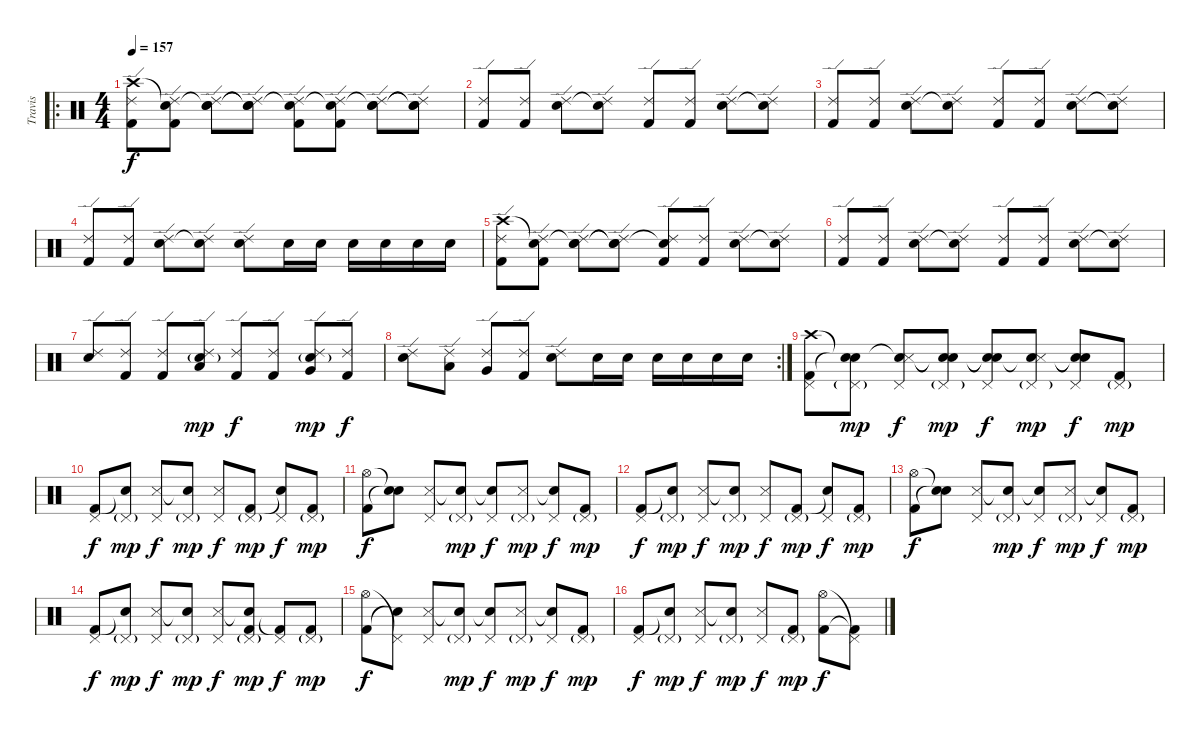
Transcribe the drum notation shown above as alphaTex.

\track ("Travis" "Travis") {instrument percussion}
\staff {score}
\articulation defaults
\ro
\ts (4 4)
\tempo 157
\clef neutral
\ks c
("Crash high (hit)" "Ride (edge) 2" "Kick (hit) 2").8{dy f} ("Snare (hit)"{t} "Ride (edge) 2" "Kick (hit) 2").8 ("Snare (hit)"{t} "Ride (edge) 2" "Electric Snare (hit)").8 ("Snare (hit)"{t} "Ride (edge) 2" "Snare (hit)"{t}).8 ("Snare (hit)"{t} "Ride (edge) 2" "Kick (hit) 2").8 ("Snare (hit)"{t} "Ride (edge) 2" "Kick (hit) 2").8 ("Snare (hit)"{t} "Ride (edge) 2" "Electric Snare (hit)").8 ("Snare (hit)"{t} "Ride (edge) 2" "Snare (hit)"{t}).8 |
("Ride (edge) 2" "Kick (hit) 2").8 ("Ride (edge) 2" "Kick (hit) 2").8 ("Ride (edge) 2" "Electric Snare (hit)").8 ("Ride (edge) 2" "Snare (hit)"{t}).8 ("Ride (edge) 2" "Kick (hit) 2").8 ("Ride (edge) 2" "Kick (hit) 2").8 ("Ride (edge) 2" "Electric Snare (hit)").8 ("Ride (edge) 2" "Snare (hit)"{t}).8 |
("Ride (edge) 2" "Kick (hit) 2").8 ("Ride (edge) 2" "Kick (hit) 2").8 ("Ride (edge) 2" "Electric Snare (hit)").8 ("Ride (edge) 2" "Snare (hit)"{t}).8 ("Ride (edge) 2" "Kick (hit) 2").8 ("Ride (edge) 2" "Kick (hit) 2").8 ("Ride (edge) 2" "Electric Snare (hit)").8 ("Ride (edge) 2" "Snare (hit)"{t}).8 |
("Ride (edge) 2" "Kick (hit) 2").8 ("Ride (edge) 2" "Kick (hit) 2").8 ("Ride (edge) 2" "Electric Snare (hit)").8 ("Ride (edge) 2" "Snare (hit)"{t}).8 ("Ride (edge) 2" "Electric Snare (hit)").8 "Electric Snare (hit)".16 "Electric Snare (hit)".16 "Electric Snare (hit)".16 "Electric Snare (hit)".16 "Electric Snare (hit)".16 "Electric Snare (hit)".16 |
("Crash high (hit)" "Ride (edge) 2" "Kick (hit) 2").8 ("Snare (hit)"{t} "Ride (edge) 2" "Kick (hit) 2").8 ("Snare (hit)"{t} "Ride (edge) 2" "Electric Snare (hit)").8 ("Snare (hit)"{t} "Ride (edge) 2" "Snare (hit)"{t}).8 ("Snare (hit)"{t} "Ride (edge) 2" "Kick (hit) 2").8 ("Ride (edge) 2" "Kick (hit) 2").8 ("Ride (edge) 2" "Electric Snare (hit)").8 ("Ride (edge) 2" "Snare (hit)"{t}).8 |
("Ride (edge) 2" "Kick (hit) 2").8 ("Ride (edge) 2" "Kick (hit) 2").8 ("Ride (edge) 2" "Electric Snare (hit)").8 ("Ride (edge) 2" "Snare (hit)"{t}).8 ("Ride (edge) 2" "Kick (hit) 2").8 ("Ride (edge) 2" "Kick (hit) 2").8 ("Ride (edge) 2" "Electric Snare (hit)").8 ("Ride (edge) 2" "Snare (hit)"{t}).8 |
("Ride (edge) 2" "Electric Snare (hit)").8 ("Ride (edge) 2" "Kick (hit) 2").8 ("Ride (edge) 2" "Kick (hit) 2").8 ("Ride (edge) 2" "Electric Snare (hit)"{g} "Low Tom (hit)").8{dy mp} ("Ride (edge) 2" "Kick (hit) 2").8{dy f} ("Ride (edge) 2" "Kick (hit) 2").8 ("Ride (edge) 2" "Electric Snare (hit)"{g} "Very Low Tom (hit)").8{dy mp} ("Ride (edge) 2" "Kick (hit) 2").8{dy f} |
\rc 2
("Ride (edge) 2" "Electric Snare (hit)").8 ("Ride (edge) 2" "Low Tom (hit)").8 ("Ride (edge) 2" "Very Low Tom (hit)").8 ("Ride (edge) 2" "Kick (hit) 2").8 ("Ride (edge) 2" "Electric Snare (hit)").8 "Electric Snare (hit)".16 "Electric Snare (hit)".16 "Electric Snare (hit)".16 "Electric Snare (hit)".16 "Electric Snare (hit)".16 "Electric Snare (hit)".16 |
("Crash high (hit)" "Pedal Hi-Hat (hit)" "Kick (hit) 2").8 ("Snare (hit)"{t} "Pedal Hi-Hat (hit)"{g} "Snare (hit)"{t}).8{dy mp} ("Snare (hit)"{t} "Pedal Hi-Hat (hit)" "Snare (side stick) 3").8{dy f} ("Snare (hit)"{t} "Pedal Hi-Hat (hit)"{g} "Snare (hit)"{t}).8{dy mp} ("Snare (hit)"{t} "Pedal Hi-Hat (hit)" "Snare (hit)"{t}).8{dy f} ("Snare (hit)"{t} "Pedal Hi-Hat (hit)"{g} "Snare (side stick) 3").8{dy mp} ("Snare (hit)"{t} "Pedal Hi-Hat (hit)" "Snare (hit)"{t}).8{dy f} ("Pedal Hi-Hat (hit)"{g} "Kick (hit) 2").8{dy mp} |
("Pedal Hi-Hat (hit)" "Kick (hit) 2").8{dy f} ("Pedal Hi-Hat (hit)"{g} "Snare (hit)"{t}).8{dy mp} ("Pedal Hi-Hat (hit)" "Snare (side stick) 3").8{dy f} ("Pedal Hi-Hat (hit)"{g} "Snare (hit)"{t}).8{dy mp} ("Pedal Hi-Hat (hit)" "Snare (side stick) 3").8{dy f} ("Pedal Hi-Hat (hit)"{g} "Kick (hit) 2").8{dy mp} ("Pedal Hi-Hat (hit)" "Snare (hit)"{t}).8{dy f} ("Pedal Hi-Hat (hit)"{g} "Kick (hit) 2").8{dy mp} |
("Hi-Hat (open)" "Kick (hit) 2").8{dy f} ("Snare (hit)"{t} "Snare (hit)"{t}).8 ("Pedal Hi-Hat (hit)" "Snare (side stick) 3").8 ("Pedal Hi-Hat (hit)"{g} "Snare (hit)"{t}).8{dy mp} ("Pedal Hi-Hat (hit)" "Snare (hit)"{t}).8{dy f} ("Pedal Hi-Hat (hit)"{g} "Snare (side stick) 3").8{dy mp} ("Pedal Hi-Hat (hit)" "Snare (hit)"{t}).8{dy f} ("Pedal Hi-Hat (hit)"{g} "Kick (hit) 2").8{dy mp} |
("Pedal Hi-Hat (hit)" "Kick (hit) 2").8{dy f} ("Pedal Hi-Hat (hit)"{g} "Snare (hit)"{t}).8{dy mp} ("Pedal Hi-Hat (hit)" "Snare (side stick) 3").8{dy f} ("Pedal Hi-Hat (hit)"{g} "Snare (hit)"{t}).8{dy mp} ("Pedal Hi-Hat (hit)" "Snare (side stick) 3").8{dy f} ("Pedal Hi-Hat (hit)"{g} "Kick (hit) 2").8{dy mp} ("Pedal Hi-Hat (hit)" "Snare (hit)"{t}).8{dy f} ("Pedal Hi-Hat (hit)"{g} "Kick (hit) 2").8{dy mp} |
("Hi-Hat (open)" "Kick (hit) 2").8{dy f} ("Snare (hit)"{t} "Snare (hit)"{t}).8 ("Pedal Hi-Hat (hit)" "Snare (side stick) 3").8 ("Pedal Hi-Hat (hit)"{g} "Snare (hit)"{t}).8{dy mp} ("Pedal Hi-Hat (hit)" "Snare (hit)"{t}).8{dy f} ("Pedal Hi-Hat (hit)"{g} "Snare (side stick) 3").8{dy mp} ("Pedal Hi-Hat (hit)" "Snare (hit)"{t}).8{dy f} ("Pedal Hi-Hat (hit)"{g} "Kick (hit) 2").8{dy mp} |
("Pedal Hi-Hat (hit)" "Kick (hit) 2").8{dy f} ("Pedal Hi-Hat (hit)"{g} "Snare (hit)"{t}).8{dy mp} ("Pedal Hi-Hat (hit)" "Snare (side stick) 3").8{dy f} ("Pedal Hi-Hat (hit)"{g} "Snare (hit)"{t}).8{dy mp} ("Pedal Hi-Hat (hit)" "Snare (side stick) 3").8{dy f} ("Pedal Hi-Hat (hit)"{g} "Snare (hit)"{t} "Kick (hit) 2").8{dy mp} ("Pedal Hi-Hat (hit)" "Kick (hit) 2"{t}).8{dy f} ("Pedal Hi-Hat (hit)"{g} "Kick (hit) 2").8{dy mp} |
("Hi-Hat (open)" "Kick (hit) 2").8{dy f} ("Pedal Hi-Hat (hit)"{t} "Snare (hit)"{t}).8 ("Pedal Hi-Hat (hit)" "Snare (side stick) 3").8 ("Pedal Hi-Hat (hit)"{g} "Snare (hit)"{t}).8{dy mp} ("Pedal Hi-Hat (hit)" "Snare (hit)"{t}).8{dy f} ("Pedal Hi-Hat (hit)"{g} "Snare (side stick) 3").8{dy mp} ("Pedal Hi-Hat (hit)" "Snare (hit)"{t}).8{dy f} ("Pedal Hi-Hat (hit)"{g} "Kick (hit) 2").8{dy mp} |
("Pedal Hi-Hat (hit)" "Kick (hit) 2").8{dy f} ("Pedal Hi-Hat (hit)"{g} "Snare (hit)"{t}).8{dy mp} ("Pedal Hi-Hat (hit)" "Snare (side stick) 3").8{dy f} ("Pedal Hi-Hat (hit)"{g} "Snare (hit)"{t}).8{dy mp} ("Pedal Hi-Hat (hit)" "Snare (side stick) 3").8{dy f} ("Pedal Hi-Hat (hit)"{g} "Kick (hit) 2").8{dy mp} ("Hi-Hat (open)" "Kick (hit) 2").8{dy f} ("Pedal Hi-Hat (hit)"{t} "Kick (hit) 2"{t}).8
